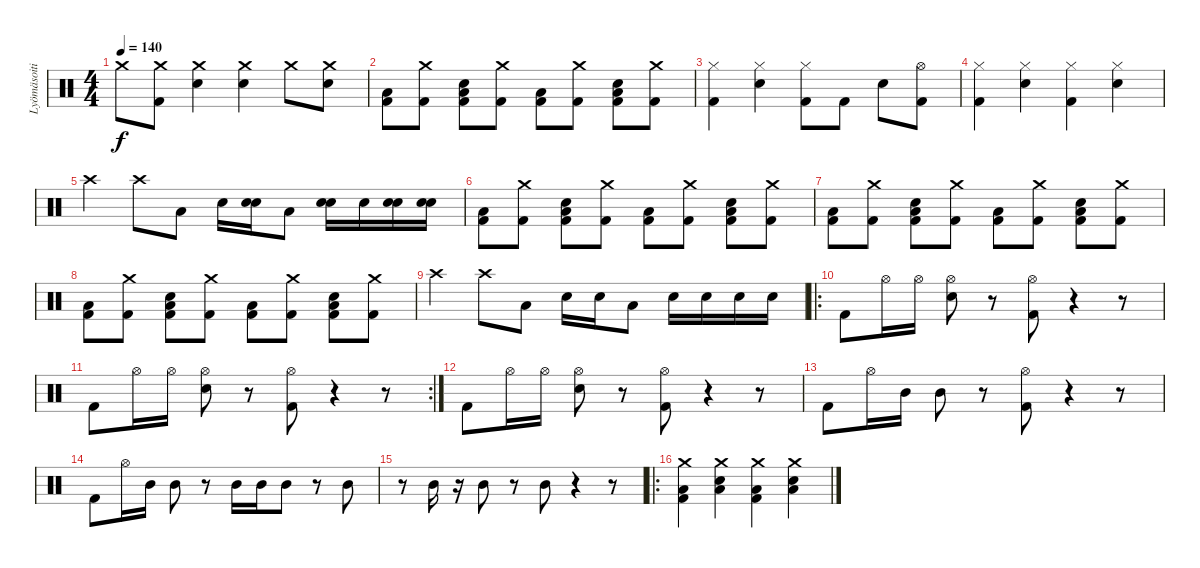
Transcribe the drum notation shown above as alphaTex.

\track ("Lyömäsoitin" "Lyömäsoiti") {instrument percussion}
\staff {score}
\articulation defaults
\ts (4 4)
\tempo 140
\clef neutral
\ks c "Crash medium (hit)".8{dy f}
("Crash medium (hit)" "Kick (hit) 2").8 ("Crash medium (hit)" "Electric Snare (hit)").4 ("Crash medium (hit)" "Electric Snare (hit)").4 "Crash medium (hit)".8 ("Crash medium (hit)" "Snare (hit) 2").8 |
("Low Floor Tom (hit)" "Kick (hit) 2").8 ("Crash medium (hit)" "Kick (hit) 2").8 ("Low Floor Tom (hit)" "Snare (hit) 2" "Kick (hit) 2").8 ("Crash medium (hit)" "Kick (hit) 2").8 ("Low Floor Tom (hit)" "Kick (hit) 2").8 ("Crash medium (hit)" "Kick (hit) 2").8 ("Low Floor Tom (hit)" "Snare (hit) 2" "Kick (hit) 2").8 ("Crash medium (hit)" "Kick (hit) 2").8 |
("Hi-Hat (closed)" "Kick (hit) 2").4 ("Hi-Hat (closed)" "Snare (hit) 2").4 ("Hi-Hat (closed)" "Kick (hit) 2").8 "Kick (hit) 2".8 "Snare (hit) 2".8 ("Hi-Hat (open)" "Kick (hit) 2").8 |
("Hi-Hat (closed)" "Kick (hit) 2").4 ("Hi-Hat (closed)" "Snare (hit) 2").4 ("Hi-Hat (closed)" "Kick (hit) 2").4 ("Hi-Hat (closed)" "Snare (hit) 2").4 |
"Crash high (hit)".4 "Crash high (hit)".8 "Low Tom (hit)".8 "Snare (hit) 2".16 ("Electric Snare (hit)" "Snare (hit) 2").16 "Low Tom (hit)".8 ("Electric Snare (hit)" "Snare (hit) 2").16 "Snare (hit) 2".16 ("Electric Snare (hit)" "Snare (hit) 2").16 ("Electric Snare (hit)" "Snare (hit) 2").16 |
("Low Floor Tom (hit)" "Kick (hit) 2").8 ("Crash medium (hit)" "Kick (hit) 2").8 ("Low Floor Tom (hit)" "Snare (hit) 2" "Kick (hit) 2").8 ("Crash medium (hit)" "Kick (hit) 2").8 ("Low Floor Tom (hit)" "Kick (hit) 2").8 ("Crash medium (hit)" "Kick (hit) 2").8 ("Low Floor Tom (hit)" "Snare (hit) 2" "Kick (hit) 2").8 ("Crash medium (hit)" "Kick (hit) 2").8 |
("Low Floor Tom (hit)" "Kick (hit) 2").8 ("Crash medium (hit)" "Kick (hit) 2").8 ("Low Floor Tom (hit)" "Snare (hit) 2" "Kick (hit) 2").8 ("Crash medium (hit)" "Kick (hit) 2").8 ("Low Floor Tom (hit)" "Kick (hit) 2").8 ("Crash medium (hit)" "Kick (hit) 2").8 ("Low Floor Tom (hit)" "Snare (hit) 2" "Kick (hit) 2").8 ("Crash medium (hit)" "Kick (hit) 2").8 |
("Low Floor Tom (hit)" "Kick (hit) 2").8 ("Crash medium (hit)" "Kick (hit) 2").8 ("Low Floor Tom (hit)" "Snare (hit) 2" "Kick (hit) 2").8 ("Crash medium (hit)" "Kick (hit) 2").8 ("Low Floor Tom (hit)" "Kick (hit) 2").8 ("Crash medium (hit)" "Kick (hit) 2").8 ("Low Floor Tom (hit)" "Snare (hit) 2" "Kick (hit) 2").8 ("Crash medium (hit)" "Kick (hit) 2").8 |
"Crash high (hit)".4 "Crash high (hit)".8 "Low Tom (hit)".8 "Snare (hit) 2".16 "Snare (hit) 2".16 "Low Tom (hit)".8 "Snare (hit) 2".16 "Snare (hit) 2".16 "Snare (hit) 2".16 "Snare (hit) 2".16 |
\ro "Kick (hit) 2".8 "Hi-Hat (open)".16 "Hi-Hat (open)".16
("Hi-Hat (open)" "Snare (hit) 2").8 r.8 ("Hi-Hat (open)" "Kick (hit) 2").8 r.4 r.8 |
\rc 2 "Kick (hit) 2".8 "Hi-Hat (open)".16 "Hi-Hat (open)".16
("Hi-Hat (open)" "Snare (hit) 2").8 r.8 ("Hi-Hat (open)" "Kick (hit) 2").8 r.4 r.8 |
"Kick (hit) 2".8 "Hi-Hat (open)".16 "Hi-Hat (open)".16 ("Hi-Hat (open)" "Snare (hit) 2").8 r.8 ("Hi-Hat (open)" "Kick (hit) 2").8 r.4 r.8 |
"Kick (hit) 2".8 "Hi-Hat (open)".16 "Mid Tom (hit)".16 "Mid Tom (hit)".8 r.8 ("Hi-Hat (open)" "Kick (hit) 2").8 r.4 r.8 |
"Kick (hit) 2".8 "Hi-Hat (open)".16 "Mid Tom (hit)".16 "Mid Tom (hit)".8 r.8 "Mid Tom (hit)".16 "Mid Tom (hit)".16 "Mid Tom (hit)".8 r.8 "Mid Tom (hit)".8 |
r.8 "Mid Tom (hit)".16 r.16 "Mid Tom (hit)".8 r.8 "Mid Tom (hit)".8 r.4 r.8 |
\ro
("Crash medium (hit)" "Low Floor Tom (hit)" "Kick (hit) 2").4 ("Crash medium (hit)" "Low Floor Tom (hit)" "Snare (hit) 2").4 ("Crash medium (hit)" "Low Floor Tom (hit)" "Kick (hit) 2").4 ("Crash medium (hit)" "Low Floor Tom (hit)" "Snare (hit) 2").4
